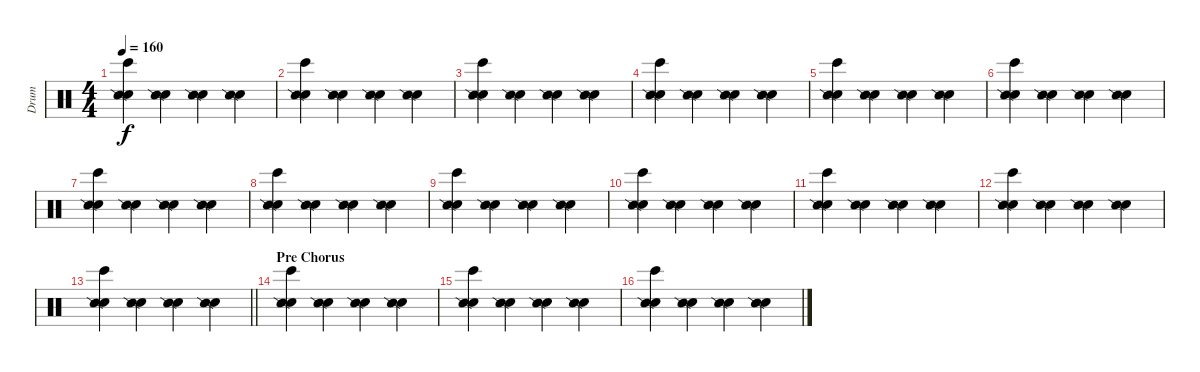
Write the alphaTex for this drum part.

\track ("Drum" "Drum") {instrument percussion}
\staff {score}
\articulation defaults
\ts (4 4)
\tempo 160
\clef neutral
\ks c
("Electric Snare (hit)" "Bongo High (hit)" "Snare (side stick) 2").4{dy f} ("Electric Snare (hit)" "Snare (side stick) 2").4 ("Electric Snare (hit)" "Snare (side stick) 2").4 ("Electric Snare (hit)" "Snare (side stick) 2").4 |
("Electric Snare (hit)" "Bongo High (hit)" "Snare (side stick) 2").4 ("Electric Snare (hit)" "Snare (side stick) 2").4 ("Electric Snare (hit)" "Snare (side stick) 2").4 ("Electric Snare (hit)" "Snare (side stick) 2").4 |
("Electric Snare (hit)" "Bongo High (hit)" "Snare (side stick) 2").4 ("Electric Snare (hit)" "Snare (side stick) 2").4 ("Electric Snare (hit)" "Snare (side stick) 2").4 ("Electric Snare (hit)" "Snare (side stick) 2").4 |
("Electric Snare (hit)" "Bongo High (hit)" "Snare (side stick) 2").4 ("Electric Snare (hit)" "Snare (side stick) 2").4 ("Electric Snare (hit)" "Snare (side stick) 2").4 ("Electric Snare (hit)" "Snare (side stick) 2").4 |
("Electric Snare (hit)" "Bongo High (hit)" "Snare (side stick) 2").4 ("Electric Snare (hit)" "Snare (side stick) 2").4 ("Electric Snare (hit)" "Snare (side stick) 2").4 ("Electric Snare (hit)" "Snare (side stick) 2").4 |
("Electric Snare (hit)" "Bongo High (hit)" "Snare (side stick) 2").4 ("Electric Snare (hit)" "Snare (side stick) 2").4 ("Electric Snare (hit)" "Snare (side stick) 2").4 ("Electric Snare (hit)" "Snare (side stick) 2").4 |
("Electric Snare (hit)" "Bongo High (hit)" "Snare (side stick) 2").4 ("Electric Snare (hit)" "Snare (side stick) 2").4 ("Electric Snare (hit)" "Snare (side stick) 2").4 ("Electric Snare (hit)" "Snare (side stick) 2").4 |
("Electric Snare (hit)" "Bongo High (hit)" "Snare (side stick) 2").4 ("Electric Snare (hit)" "Snare (side stick) 2").4 ("Electric Snare (hit)" "Snare (side stick) 2").4 ("Electric Snare (hit)" "Snare (side stick) 2").4 |
("Electric Snare (hit)" "Bongo High (hit)" "Snare (side stick) 2").4 ("Electric Snare (hit)" "Snare (side stick) 2").4 ("Electric Snare (hit)" "Snare (side stick) 2").4 ("Electric Snare (hit)" "Snare (side stick) 2").4 |
("Electric Snare (hit)" "Bongo High (hit)" "Snare (side stick) 2").4 ("Electric Snare (hit)" "Snare (side stick) 2").4 ("Electric Snare (hit)" "Snare (side stick) 2").4 ("Electric Snare (hit)" "Snare (side stick) 2").4 |
("Electric Snare (hit)" "Bongo High (hit)" "Snare (side stick) 2").4 ("Electric Snare (hit)" "Snare (side stick) 2").4 ("Electric Snare (hit)" "Snare (side stick) 2").4 ("Electric Snare (hit)" "Snare (side stick) 2").4 |
("Electric Snare (hit)" "Bongo High (hit)" "Snare (side stick) 2").4 ("Electric Snare (hit)" "Snare (side stick) 2").4 ("Electric Snare (hit)" "Snare (side stick) 2").4 ("Electric Snare (hit)" "Snare (side stick) 2").4 |
\barLineRight lightlight
("Electric Snare (hit)" "Bongo High (hit)" "Snare (side stick) 2").4 ("Electric Snare (hit)" "Snare (side stick) 2").4 ("Electric Snare (hit)" "Snare (side stick) 2").4 ("Electric Snare (hit)" "Snare (side stick) 2").4 |
\section ("" "Pre Chorus")
("Electric Snare (hit)" "Bongo High (hit)" "Snare (side stick) 2").4 ("Electric Snare (hit)" "Snare (side stick) 2").4 ("Electric Snare (hit)" "Snare (side stick) 2").4 ("Electric Snare (hit)" "Snare (side stick) 2").4 |
("Electric Snare (hit)" "Bongo High (hit)" "Snare (side stick) 2").4 ("Electric Snare (hit)" "Snare (side stick) 2").4 ("Electric Snare (hit)" "Snare (side stick) 2").4 ("Electric Snare (hit)" "Snare (side stick) 2").4 |
("Electric Snare (hit)" "Bongo High (hit)" "Snare (side stick) 2").4 ("Electric Snare (hit)" "Snare (side stick) 2").4 ("Electric Snare (hit)" "Snare (side stick) 2").4 ("Electric Snare (hit)" "Snare (side stick) 2").4
